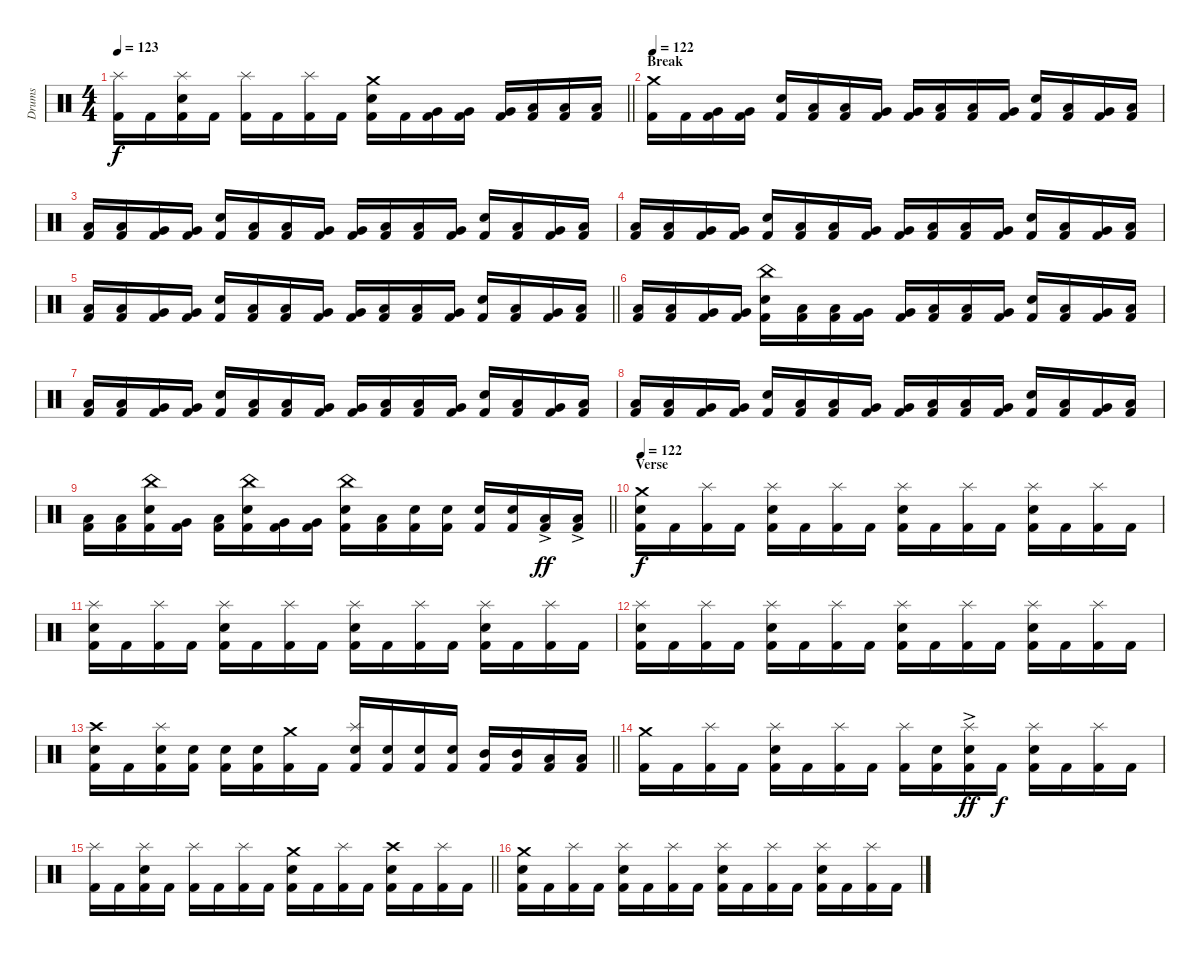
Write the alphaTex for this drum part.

\track ("Drums" "Drums") {instrument percussion}
\staff {score}
\articulation defaults
\ts (4 4)
\tempo 123
\clef neutral
\barLineRight lightlight
\ks c
("Kick (hit) 2" "Splash (hit)").16{dy f} "Kick (hit) 2".16 ("Kick (hit) 2" "Snare (hit) 2" "Splash (hit)").16 "Kick (hit) 2".16 ("Kick (hit) 2" "Splash (hit)").16 "Kick (hit) 2".16 ("Kick (hit) 2" "Splash (hit)").16 "Kick (hit) 2".16 ("Kick (hit) 2" "Snare (hit) 2" "Crash medium (hit)").16 "Kick (hit) 2".16 ("Kick (hit) 2" "Very Low Tom (hit)").16 ("Kick (hit) 2" "Very Low Tom (hit)").16 ("Kick (hit) 2" "Very Low Tom (hit)").16 ("Kick (hit) 2" "Low Floor Tom (hit)").16 ("Kick (hit) 2" "Low Floor Tom (hit)").16 ("Kick (hit) 2" "Low Floor Tom (hit)").16 |
\section ("" "Break")
\tempo 122
("Kick (hit) 2" "Crash medium (hit)").16 "Kick (hit) 2".16 ("Kick (hit) 2" "Very Low Tom (hit)").16 ("Kick (hit) 2" "Very Low Tom (hit)").16 ("Kick (hit) 2" "Snare (hit) 2").16 ("Kick (hit) 2" "Low Tom (hit)").16 ("Kick (hit) 2" "Low Tom (hit)").16 ("Kick (hit) 2" "Very Low Tom (hit)").16 ("Kick (hit) 2" "Very Low Tom (hit)").16 ("Kick (hit) 2" "Low Tom (hit)").16 ("Kick (hit) 2" "Low Tom (hit)").16 ("Kick (hit) 2" "Very Low Tom (hit)").16 ("Kick (hit) 2" "Snare (hit) 2").16 ("Kick (hit) 2" "Low Tom (hit)").16 ("Kick (hit) 2" "Very Low Tom (hit)").16 ("Kick (hit) 2" "Low Floor Tom (hit)").16 |
("Kick (hit) 2" "Low Tom (hit)").16 ("Kick (hit) 2" "Low Tom (hit)").16 ("Kick (hit) 2" "Very Low Tom (hit)").16 ("Kick (hit) 2" "Very Low Tom (hit)").16 ("Kick (hit) 2" "Snare (hit) 2").16 ("Kick (hit) 2" "Low Tom (hit)").16 ("Kick (hit) 2" "Low Tom (hit)").16 ("Kick (hit) 2" "Very Low Tom (hit)").16 ("Kick (hit) 2" "Very Low Tom (hit)").16 ("Kick (hit) 2" "Low Tom (hit)").16 ("Kick (hit) 2" "Low Tom (hit)").16 ("Kick (hit) 2" "Very Low Tom (hit)").16 ("Kick (hit) 2" "Snare (hit) 2").16 ("Kick (hit) 2" "Low Tom (hit)").16 ("Kick (hit) 2" "Very Low Tom (hit)").16 ("Kick (hit) 2" "Low Floor Tom (hit)").16 |
("Kick (hit) 2" "Low Tom (hit)").16 ("Kick (hit) 2" "Low Tom (hit)").16 ("Kick (hit) 2" "Very Low Tom (hit)").16 ("Kick (hit) 2" "Very Low Tom (hit)").16 ("Kick (hit) 2" "Snare (hit) 2").16 ("Kick (hit) 2" "Low Tom (hit)").16 ("Kick (hit) 2" "Low Tom (hit)").16 ("Kick (hit) 2" "Very Low Tom (hit)").16 ("Kick (hit) 2" "Very Low Tom (hit)").16 ("Kick (hit) 2" "Low Tom (hit)").16 ("Kick (hit) 2" "Low Tom (hit)").16 ("Kick (hit) 2" "Very Low Tom (hit)").16 ("Kick (hit) 2" "Snare (hit) 2").16 ("Kick (hit) 2" "Low Tom (hit)").16 ("Kick (hit) 2" "Very Low Tom (hit)").16 ("Kick (hit) 2" "Low Floor Tom (hit)").16 |
\barLineRight lightlight
("Kick (hit) 2" "Low Tom (hit)").16 ("Kick (hit) 2" "Low Tom (hit)").16 ("Kick (hit) 2" "Very Low Tom (hit)").16 ("Kick (hit) 2" "Very Low Tom (hit)").16 ("Kick (hit) 2" "Snare (hit) 2").16 ("Kick (hit) 2" "Low Tom (hit)").16 ("Kick (hit) 2" "Low Tom (hit)").16 ("Kick (hit) 2" "Very Low Tom (hit)").16 ("Kick (hit) 2" "Very Low Tom (hit)").16 ("Kick (hit) 2" "Low Tom (hit)").16 ("Kick (hit) 2" "Low Tom (hit)").16 ("Kick (hit) 2" "Very Low Tom (hit)").16 ("Kick (hit) 2" "Snare (hit) 2").16 ("Kick (hit) 2" "Low Tom (hit)").16 ("Kick (hit) 2" "Very Low Tom (hit)").16 ("Kick (hit) 2" "Low Floor Tom (hit)").16 |
\section ("" "")
("Kick (hit) 2" "Low Tom (hit)").16 ("Kick (hit) 2" "Low Tom (hit)").16 ("Kick (hit) 2" "Very Low Tom (hit)").16 ("Kick (hit) 2" "Very Low Tom (hit)").16 ("Kick (hit) 2" "Snare (hit) 2" "China (hit)").16 ("Kick (hit) 2" "Low Tom (hit)").16 ("Kick (hit) 2" "Low Tom (hit)").16 ("Kick (hit) 2" "Very Low Tom (hit)").16 ("Kick (hit) 2" "Very Low Tom (hit)").16 ("Kick (hit) 2" "Low Tom (hit)").16 ("Kick (hit) 2" "Low Tom (hit)").16 ("Kick (hit) 2" "Very Low Tom (hit)").16 ("Kick (hit) 2" "Snare (hit) 2").16 ("Kick (hit) 2" "Low Tom (hit)").16 ("Kick (hit) 2" "Very Low Tom (hit)").16 ("Kick (hit) 2" "Low Floor Tom (hit)").16 |
("Kick (hit) 2" "Low Tom (hit)").16 ("Kick (hit) 2" "Low Tom (hit)").16 ("Kick (hit) 2" "Very Low Tom (hit)").16 ("Kick (hit) 2" "Very Low Tom (hit)").16 ("Kick (hit) 2" "Snare (hit) 2").16 ("Kick (hit) 2" "Low Tom (hit)").16 ("Kick (hit) 2" "Low Tom (hit)").16 ("Kick (hit) 2" "Very Low Tom (hit)").16 ("Kick (hit) 2" "Very Low Tom (hit)").16 ("Kick (hit) 2" "Low Tom (hit)").16 ("Kick (hit) 2" "Low Tom (hit)").16 ("Kick (hit) 2" "Very Low Tom (hit)").16 ("Kick (hit) 2" "Snare (hit) 2").16 ("Kick (hit) 2" "Low Tom (hit)").16 ("Kick (hit) 2" "Very Low Tom (hit)").16 ("Kick (hit) 2" "Low Floor Tom (hit)").16 |
("Kick (hit) 2" "Low Tom (hit)").16 ("Kick (hit) 2" "Low Tom (hit)").16 ("Kick (hit) 2" "Very Low Tom (hit)").16 ("Kick (hit) 2" "Very Low Tom (hit)").16 ("Kick (hit) 2" "Snare (hit) 2").16 ("Kick (hit) 2" "Low Tom (hit)").16 ("Kick (hit) 2" "Low Tom (hit)").16 ("Kick (hit) 2" "Very Low Tom (hit)").16 ("Kick (hit) 2" "Very Low Tom (hit)").16 ("Kick (hit) 2" "Low Tom (hit)").16 ("Kick (hit) 2" "Low Tom (hit)").16 ("Kick (hit) 2" "Very Low Tom (hit)").16 ("Kick (hit) 2" "Snare (hit) 2").16 ("Kick (hit) 2" "Low Tom (hit)").16 ("Kick (hit) 2" "Very Low Tom (hit)").16 ("Kick (hit) 2" "Low Floor Tom (hit)").16 |
\barLineRight lightlight
("Kick (hit) 2" "Low Tom (hit)").16 ("Kick (hit) 2" "Low Tom (hit)").16 ("Kick (hit) 2" "Snare (hit) 2" "China (hit)").16 ("Kick (hit) 2" "Very Low Tom (hit)").16 ("Kick (hit) 2" "Low Tom (hit)").16 ("Kick (hit) 2" "Snare (hit) 2" "China (hit)").16 ("Kick (hit) 2" "Very Low Tom (hit)").16 ("Kick (hit) 2" "Very Low Tom (hit)").16 ("Kick (hit) 2" "Snare (hit) 2" "China (hit)").16 ("Kick (hit) 2" "Low Tom (hit)").16 ("Kick (hit) 2" "Snare (hit) 2").16 ("Kick (hit) 2" "Snare (hit) 2").16 ("Kick (hit) 2" "Snare (hit) 2").16 ("Kick (hit) 2" "Snare (hit) 2").16 ("Kick (hit) 2" "Low Tom (hit)"{ac}).16{dy ff} ("Kick (hit) 2" "Low Tom (hit)"{ac}).16 |
\section ("" "Verse")
\tempo 122
("Kick (hit) 2" "Snare (hit) 2" "Crash medium (hit)").16{dy f} "Kick (hit) 2".16 ("Kick (hit) 2" "Splash (hit)").16 "Kick (hit) 2".16 ("Kick (hit) 2" "Snare (hit) 2" "Splash (hit)").16 "Kick (hit) 2".16 ("Kick (hit) 2" "Splash (hit)").16 "Kick (hit) 2".16 ("Kick (hit) 2" "Snare (hit) 2" "Splash (hit)").16 "Kick (hit) 2".16 ("Kick (hit) 2" "Splash (hit)").16 "Kick (hit) 2".16 ("Kick (hit) 2" "Snare (hit) 2" "Splash (hit)").16 "Kick (hit) 2".16 ("Kick (hit) 2" "Splash (hit)").16 "Kick (hit) 2".16 |
("Kick (hit) 2" "Snare (hit) 2" "Splash (hit)").16 "Kick (hit) 2".16 ("Kick (hit) 2" "Splash (hit)").16 "Kick (hit) 2".16 ("Kick (hit) 2" "Snare (hit) 2" "Splash (hit)").16 "Kick (hit) 2".16 ("Kick (hit) 2" "Splash (hit)").16 "Kick (hit) 2".16 ("Kick (hit) 2" "Snare (hit) 2" "Splash (hit)").16 "Kick (hit) 2".16 ("Kick (hit) 2" "Splash (hit)").16 "Kick (hit) 2".16 ("Kick (hit) 2" "Snare (hit) 2" "Splash (hit)").16 "Kick (hit) 2".16 ("Kick (hit) 2" "Splash (hit)").16 "Kick (hit) 2".16 |
("Kick (hit) 2" "Snare (hit) 2" "Splash (hit)").16 "Kick (hit) 2".16 ("Kick (hit) 2" "Splash (hit)").16 "Kick (hit) 2".16 ("Kick (hit) 2" "Snare (hit) 2" "Splash (hit)").16 "Kick (hit) 2".16 ("Kick (hit) 2" "Splash (hit)").16 "Kick (hit) 2".16 ("Kick (hit) 2" "Snare (hit) 2" "Splash (hit)").16 "Kick (hit) 2".16 ("Kick (hit) 2" "Splash (hit)").16 "Kick (hit) 2".16 ("Kick (hit) 2" "Snare (hit) 2" "Splash (hit)").16 "Kick (hit) 2".16 ("Kick (hit) 2" "Splash (hit)").16 "Kick (hit) 2".16 |
\barLineRight lightlight
("Kick (hit) 2" "Snare (hit) 2" "Crash high (hit)").16 "Kick (hit) 2".16 ("Kick (hit) 2" "Snare (hit) 2" "Splash (hit)").16 ("Kick (hit) 2" "Snare (hit) 2").16 ("Kick (hit) 2" "Snare (hit) 2").16 ("Kick (hit) 2" "Snare (hit) 2").16 ("Kick (hit) 2" "Crash medium (hit)").16 "Kick (hit) 2".16 ("Kick (hit) 2" "Snare (hit) 2" "Splash (hit)").16 ("Kick (hit) 2" "Snare (hit) 2").16 ("Kick (hit) 2" "Snare (hit) 2").16 ("Kick (hit) 2" "Snare (hit) 2").16 ("Kick (hit) 2" "Mid Tom (hit)").16 ("Kick (hit) 2" "Mid Tom (hit)").16 ("Kick (hit) 2" "Low Tom (hit)").16 ("Kick (hit) 2" "Low Tom (hit)").16 |
\section ("" "")
("Kick (hit) 2" "Crash medium (hit)").16 "Kick (hit) 2".16 ("Kick (hit) 2" "Splash (hit)").16 "Kick (hit) 2".16 ("Kick (hit) 2" "Snare (hit) 2" "Splash (hit)").16 "Kick (hit) 2".16 ("Kick (hit) 2" "Splash (hit)").16 "Kick (hit) 2".16 ("Kick (hit) 2" "Splash (hit)").16 ("Kick (hit) 2" "Snare (hit) 2").16 ("Kick (hit) 2" "Snare (hit) 2"{ac} "Splash (hit)").16{dy ff} "Kick (hit) 2".16{dy f} ("Kick (hit) 2" "Snare (hit) 2" "Splash (hit)").16 "Kick (hit) 2".16 ("Kick (hit) 2" "Splash (hit)").16 "Kick (hit) 2".16 |
\barLineRight lightlight
("Kick (hit) 2" "Splash (hit)").16 "Kick (hit) 2".16 ("Kick (hit) 2" "Snare (hit) 2" "Splash (hit)").16 "Kick (hit) 2".16 ("Kick (hit) 2" "Splash (hit)").16 "Kick (hit) 2".16 ("Kick (hit) 2" "Splash (hit)").16 "Kick (hit) 2".16 ("Kick (hit) 2" "Snare (hit) 2" "Crash medium (hit)").16 "Kick (hit) 2".16 ("Kick (hit) 2" "Splash (hit)").16 "Kick (hit) 2".16 ("Kick (hit) 2" "Snare (hit) 2" "Crash high (hit)").16 "Kick (hit) 2".16 ("Kick (hit) 2" "Splash (hit)").16 "Kick (hit) 2".16 |
\section ("" "")
("Kick (hit) 2" "Snare (hit) 2" "Crash medium (hit)").16 "Kick (hit) 2".16 ("Kick (hit) 2" "Splash (hit)").16 "Kick (hit) 2".16 ("Kick (hit) 2" "Snare (hit) 2" "Splash (hit)").16 "Kick (hit) 2".16 ("Kick (hit) 2" "Splash (hit)").16 "Kick (hit) 2".16 ("Kick (hit) 2" "Snare (hit) 2" "Splash (hit)").16 "Kick (hit) 2".16 ("Kick (hit) 2" "Splash (hit)").16 "Kick (hit) 2".16 ("Kick (hit) 2" "Snare (hit) 2" "Splash (hit)").16 "Kick (hit) 2".16 ("Kick (hit) 2" "Splash (hit)").16 "Kick (hit) 2".16
